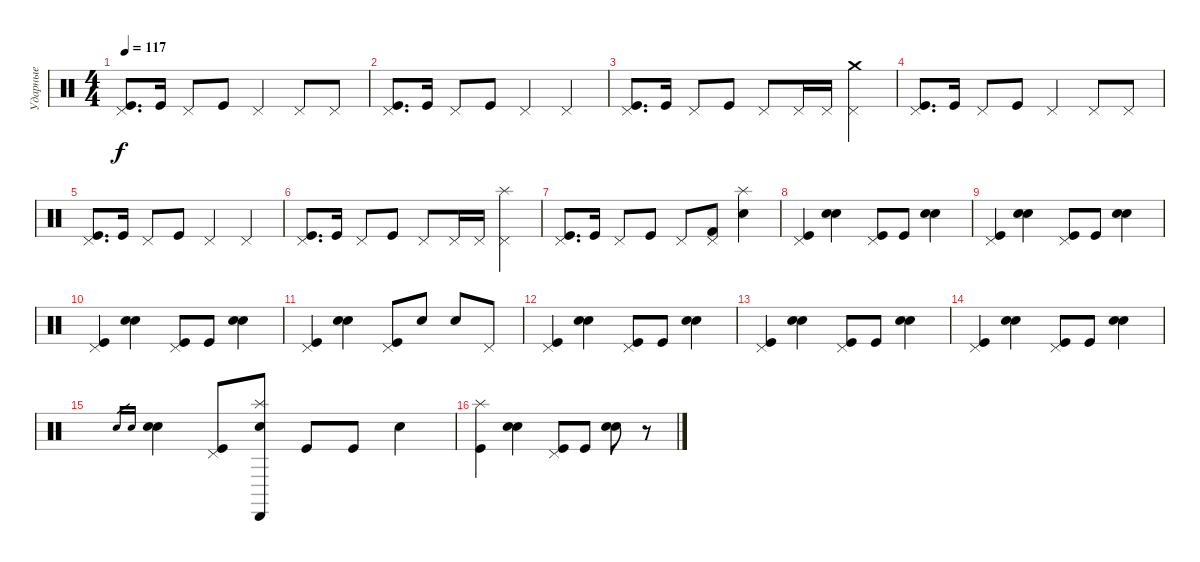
\track ("Ударные" "Ударные") {instrument percussion}
\staff {score}
\articulation defaults
\ts (4 4)
\tempo 117
\clef neutral
\ks c
("Pedal Hi-Hat (hit)" "Kick (hit)").8{d dy f} "Kick (hit)".16 "Pedal Hi-Hat (hit)".8 "Kick (hit)".8 "Pedal Hi-Hat (hit)".4 "Pedal Hi-Hat (hit)".8 "Pedal Hi-Hat (hit)".8 |
("Pedal Hi-Hat (hit)" "Kick (hit)").8{d} "Kick (hit)".16 "Pedal Hi-Hat (hit)".8 "Kick (hit)".8 "Pedal Hi-Hat (hit)".4 "Pedal Hi-Hat (hit)".4 |
("Pedal Hi-Hat (hit)" "Kick (hit)").8{d} "Kick (hit)".16 "Pedal Hi-Hat (hit)".8 "Kick (hit)".8 "Pedal Hi-Hat (hit)".8 "Pedal Hi-Hat (hit)".16 "Pedal Hi-Hat (hit)".16 ("Pedal Hi-Hat (hit)" "Crash medium (hit)").4 |
("Pedal Hi-Hat (hit)" "Kick (hit)").8{d} "Kick (hit)".16 "Pedal Hi-Hat (hit)".8 "Kick (hit)".8 "Pedal Hi-Hat (hit)".4 "Pedal Hi-Hat (hit)".8 "Pedal Hi-Hat (hit)".8 |
("Pedal Hi-Hat (hit)" "Kick (hit)").8{d} "Kick (hit)".16 "Pedal Hi-Hat (hit)".8 "Kick (hit)".8 "Pedal Hi-Hat (hit)".4 "Pedal Hi-Hat (hit)".4 |
("Pedal Hi-Hat (hit)" "Kick (hit)").8{d} "Kick (hit)".16 "Pedal Hi-Hat (hit)".8 "Kick (hit)".8 "Pedal Hi-Hat (hit)".8 "Pedal Hi-Hat (hit)".16 "Pedal Hi-Hat (hit)".16 ("Pedal Hi-Hat (hit)" "Splash (hit)").4 |
("Pedal Hi-Hat (hit)" "Kick (hit)").8{d} "Kick (hit)".16 "Pedal Hi-Hat (hit)".8 "Kick (hit)".8 "Pedal Hi-Hat (hit)".8 ("Pedal Hi-Hat (hit)" "Kick (hit) 2").8 ("Splash (hit)" "Electric Snare (hit)").4 |
("Pedal Hi-Hat (hit)" "Kick (hit)").4 ("Electric Snare (hit)" "Snare (hit) 2").4 ("Pedal Hi-Hat (hit)" "Kick (hit)").8 "Kick (hit)".8 ("Electric Snare (hit)" "Snare (hit) 2").4 |
("Pedal Hi-Hat (hit)" "Kick (hit)").4 ("Electric Snare (hit)" "Snare (hit) 2").4 ("Pedal Hi-Hat (hit)" "Kick (hit)").8 "Kick (hit)".8 ("Electric Snare (hit)" "Snare (hit) 2").4 |
("Pedal Hi-Hat (hit)" "Kick (hit)").4 ("Electric Snare (hit)" "Snare (hit) 2").4 ("Pedal Hi-Hat (hit)" "Kick (hit)").8 "Kick (hit)".8 ("Electric Snare (hit)" "Snare (hit) 2").4 |
("Pedal Hi-Hat (hit)" "Kick (hit)").4 ("Electric Snare (hit)" "Snare (hit) 2").4 ("Pedal Hi-Hat (hit)" "Kick (hit)").8 "Electric Snare (hit)".8 "Electric Snare (hit)".8 "Pedal Hi-Hat (hit)".8 |
("Pedal Hi-Hat (hit)" "Kick (hit)").4 ("Electric Snare (hit)" "Snare (hit) 2").4 ("Pedal Hi-Hat (hit)" "Kick (hit)").8 "Kick (hit)".8 ("Electric Snare (hit)" "Snare (hit) 2").4 |
("Pedal Hi-Hat (hit)" "Kick (hit)").4 ("Electric Snare (hit)" "Snare (hit) 2").4 ("Pedal Hi-Hat (hit)" "Kick (hit)").8 "Kick (hit)".8 ("Electric Snare (hit)" "Snare (hit) 2").4 |
("Pedal Hi-Hat (hit)" "Kick (hit)").4 ("Electric Snare (hit)" "Snare (hit) 2").4 ("Pedal Hi-Hat (hit)" "Kick (hit)").8 "Kick (hit)".8 ("Electric Snare (hit)" "Snare (hit) 2").4 |
"Electric Snare (hit)".16{gr} "Snare (hit) 2".16{gr} ("Electric Snare (hit)" "Snare (hit) 2").4 ("Pedal Hi-Hat (hit)" "Kick (hit)").8 ("Cabasa (hit)" "Electric Snare (hit)" "Splash (hit)").8 "Kick (hit)".8 "Kick (hit)".8 "Electric Snare (hit)".4 |
("Splash (hit)" "Kick (hit)").4 ("Electric Snare (hit)" "Snare (hit) 2").4 ("Pedal Hi-Hat (hit)" "Kick (hit)").8 "Kick (hit)".8 ("Electric Snare (hit)" "Snare (hit) 2").8 r.8
